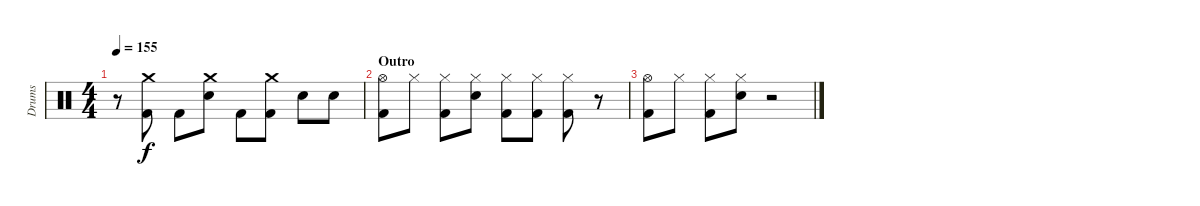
\track ("Drums" "Drums") {instrument percussion}
\staff {score}
\articulation defaults
\ts (4 4)
\tempo 155
\clef neutral
\ks c
r.8{dy f} ("Kick (hit) 2" "Crash medium (hit)").8 "Kick (hit) 2".8 ("Electric Snare (hit)" "Crash medium (hit)").8 "Kick (hit) 2".8 ("Kick (hit) 2" "Crash medium (hit)").8 "Electric Snare (hit)".8 "Electric Snare (hit)".8 |
\section ("" "Outro")
("Kick (hit) 2" "Hi-Hat (open)").8 "Hi-Hat (closed)".8 ("Kick (hit) 2" "Hi-Hat (closed)").8 ("Electric Snare (hit)" "Hi-Hat (closed)").8 ("Kick (hit) 2" "Hi-Hat (closed)").8 ("Kick (hit) 2" "Hi-Hat (closed)").8 ("Kick (hit) 2" "Hi-Hat (closed)").8 r.8 |
("Kick (hit) 2" "Hi-Hat (open)").8 "Hi-Hat (closed)".8 ("Kick (hit) 2" "Hi-Hat (closed)").8 ("Electric Snare (hit)" "Hi-Hat (closed)").8 r.2
